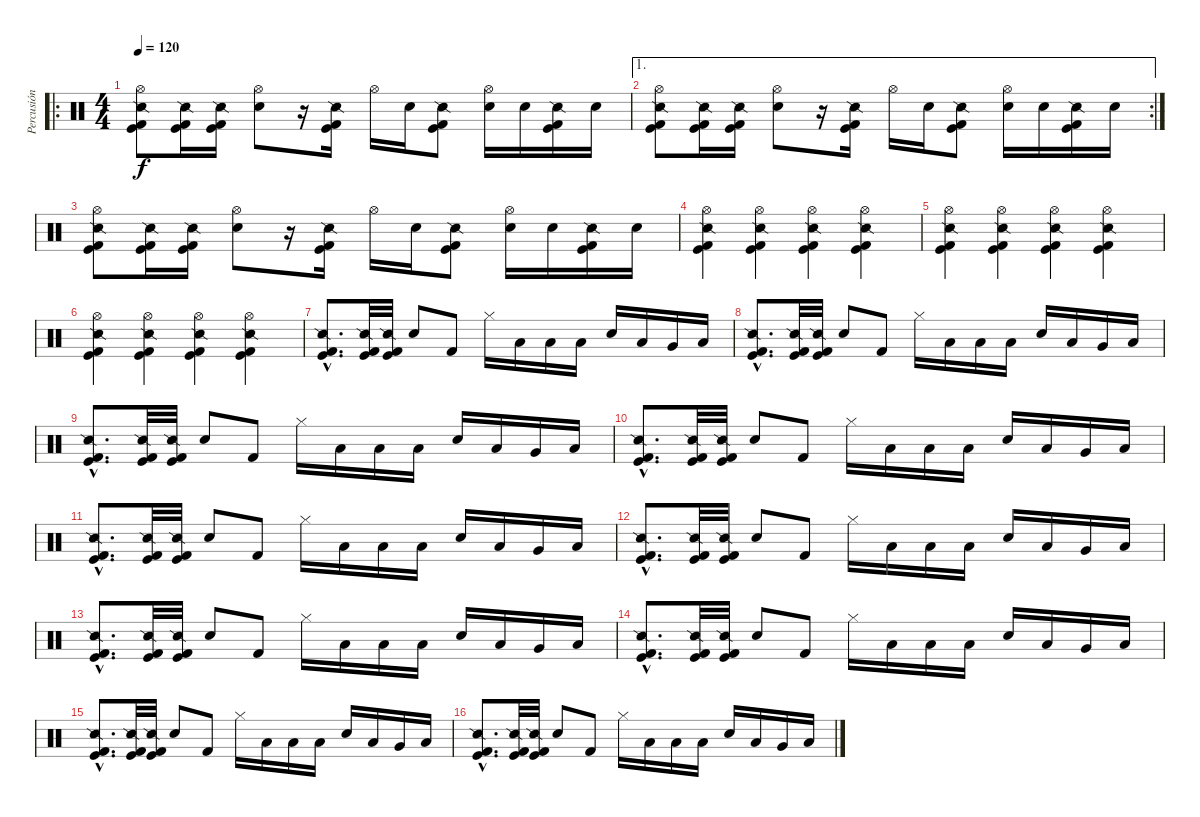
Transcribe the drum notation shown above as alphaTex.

\track ("Percusión" "Percusión") {instrument percussion}
\staff {score}
\articulation defaults
\ro
\ts (4 4)
\tempo 120
\clef neutral
\ks c
("Hi-Hat (open)" "Snare (side stick) 2" "Kick (hit)" "Kick (hit) 2").8{dy f} ("Snare (side stick) 2" "Kick (hit)" "Kick (hit) 2").16 ("Snare (side stick) 2" "Kick (hit)" "Kick (hit) 2").16 ("Hi-Hat (open)" "Snare (hit) 2").8 r.16 ("Snare (side stick) 2" "Kick (hit)" "Kick (hit) 2").16 "Hi-Hat (open)".16 "Snare (hit) 2".16 ("Snare (side stick) 2" "Kick (hit)" "Kick (hit) 2").8 ("Hi-Hat (open)" "Snare (hit) 2").16 "Snare (hit) 2".16 ("Snare (side stick) 2" "Kick (hit)" "Kick (hit) 2").16 "Snare (hit) 2".16 |
\ae 1
\rc 2
("Hi-Hat (open)" "Snare (side stick) 2" "Kick (hit)" "Kick (hit) 2").8 ("Snare (side stick) 2" "Kick (hit)" "Kick (hit) 2").16 ("Snare (side stick) 2" "Kick (hit)" "Kick (hit) 2").16 ("Hi-Hat (open)" "Snare (hit) 2").8 r.16 ("Snare (side stick) 2" "Kick (hit)" "Kick (hit) 2").16 "Hi-Hat (open)".16 "Snare (hit) 2".16 ("Snare (side stick) 2" "Kick (hit)" "Kick (hit) 2").8 ("Hi-Hat (open)" "Snare (hit) 2").16 "Snare (hit) 2".16 ("Snare (side stick) 2" "Kick (hit)" "Kick (hit) 2").16 "Snare (hit) 2".16 |
("Hi-Hat (open)" "Snare (side stick) 2" "Kick (hit)" "Kick (hit) 2").8 ("Snare (side stick) 2" "Kick (hit)" "Kick (hit) 2").16 ("Snare (side stick) 2" "Kick (hit)" "Kick (hit) 2").16 ("Hi-Hat (open)" "Snare (hit) 2").8 r.16 ("Snare (side stick) 2" "Kick (hit)" "Kick (hit) 2").16 "Hi-Hat (open)".16 "Snare (hit) 2".16 ("Snare (side stick) 2" "Kick (hit)" "Kick (hit) 2").8 ("Hi-Hat (open)" "Snare (hit) 2").16 "Snare (hit) 2".16 ("Snare (side stick) 2" "Kick (hit)" "Kick (hit) 2").16 "Snare (hit) 2".16 |
("Hi-Hat (open)" "Snare (side stick) 2" "Kick (hit)" "Kick (hit) 2").4 ("Hi-Hat (open)" "Snare (side stick) 2" "Kick (hit)" "Kick (hit) 2").4 ("Hi-Hat (open)" "Snare (side stick) 2" "Kick (hit)" "Kick (hit) 2").4 ("Hi-Hat (open)" "Snare (side stick) 2" "Kick (hit)" "Kick (hit) 2").4 |
("Hi-Hat (open)" "Snare (side stick) 2" "Kick (hit)" "Kick (hit) 2").4 ("Hi-Hat (open)" "Snare (side stick) 2" "Kick (hit)" "Kick (hit) 2").4 ("Hi-Hat (open)" "Snare (side stick) 2" "Kick (hit)" "Kick (hit) 2").4 ("Hi-Hat (open)" "Snare (side stick) 2" "Kick (hit)" "Kick (hit) 2").4 |
("Hi-Hat (open)" "Snare (side stick) 2" "Kick (hit)" "Kick (hit) 2").4 ("Hi-Hat (open)" "Snare (side stick) 2" "Kick (hit)" "Kick (hit) 2").4 ("Hi-Hat (open)" "Snare (side stick) 2" "Kick (hit)" "Kick (hit) 2").4 ("Hi-Hat (open)" "Snare (side stick) 2" "Kick (hit)" "Kick (hit) 2").4 |
("Snare (side stick) 2"{hac} "Kick (hit)"{hac} "Kick (hit) 2"{hac}).8{d} ("Snare (side stick) 2" "Kick (hit)" "Kick (hit) 2").32 ("Snare (side stick) 2" "Kick (hit)" "Kick (hit) 2").32 "Snare (hit) 2".8 "Kick (hit) 2".8 "Hi-Hat (closed)".16 "Low Tom (hit)".16 "Low Tom (hit)".16 "Low Tom (hit)".16 "Snare (hit) 2".16 "Low Tom (hit)".16 "Very Low Tom (hit)".16 "Low Floor Tom (hit)".16 |
("Snare (side stick) 2"{hac} "Kick (hit)"{hac} "Kick (hit) 2"{hac}).8{d} ("Snare (side stick) 2" "Kick (hit)" "Kick (hit) 2").32 ("Snare (side stick) 2" "Kick (hit)" "Kick (hit) 2").32 "Snare (hit) 2".8 "Kick (hit) 2".8 "Hi-Hat (closed)".16 "Low Tom (hit)".16 "Low Tom (hit)".16 "Low Tom (hit)".16 "Snare (hit) 2".16 "Low Tom (hit)".16 "Very Low Tom (hit)".16 "Low Floor Tom (hit)".16 |
("Snare (side stick) 2"{hac} "Kick (hit)"{hac} "Kick (hit) 2"{hac}).8{d} ("Snare (side stick) 2" "Kick (hit)" "Kick (hit) 2").32 ("Snare (side stick) 2" "Kick (hit)" "Kick (hit) 2").32 "Snare (hit) 2".8 "Kick (hit) 2".8 "Hi-Hat (closed)".16 "Low Tom (hit)".16 "Low Tom (hit)".16 "Low Tom (hit)".16 "Snare (hit) 2".16 "Low Tom (hit)".16 "Very Low Tom (hit)".16 "Low Floor Tom (hit)".16 |
("Snare (side stick) 2"{hac} "Kick (hit)"{hac} "Kick (hit) 2"{hac}).8{d} ("Snare (side stick) 2" "Kick (hit)" "Kick (hit) 2").32 ("Snare (side stick) 2" "Kick (hit)" "Kick (hit) 2").32 "Snare (hit) 2".8 "Kick (hit) 2".8 "Hi-Hat (closed)".16 "Low Tom (hit)".16 "Low Tom (hit)".16 "Low Tom (hit)".16 "Snare (hit) 2".16 "Low Tom (hit)".16 "Very Low Tom (hit)".16 "Low Floor Tom (hit)".16 |
("Snare (side stick) 2"{hac} "Kick (hit)"{hac} "Kick (hit) 2"{hac}).8{d} ("Snare (side stick) 2" "Kick (hit)" "Kick (hit) 2").32 ("Snare (side stick) 2" "Kick (hit)" "Kick (hit) 2").32 "Snare (hit) 2".8 "Kick (hit) 2".8 "Hi-Hat (closed)".16 "Low Tom (hit)".16 "Low Tom (hit)".16 "Low Tom (hit)".16 "Snare (hit) 2".16 "Low Tom (hit)".16 "Very Low Tom (hit)".16 "Low Floor Tom (hit)".16 |
("Snare (side stick) 2"{hac} "Kick (hit)"{hac} "Kick (hit) 2"{hac}).8{d} ("Snare (side stick) 2" "Kick (hit)" "Kick (hit) 2").32 ("Snare (side stick) 2" "Kick (hit)" "Kick (hit) 2").32 "Snare (hit) 2".8 "Kick (hit) 2".8 "Hi-Hat (closed)".16 "Low Tom (hit)".16 "Low Tom (hit)".16 "Low Tom (hit)".16 "Snare (hit) 2".16 "Low Tom (hit)".16 "Very Low Tom (hit)".16 "Low Floor Tom (hit)".16 |
("Snare (side stick) 2"{hac} "Kick (hit)"{hac} "Kick (hit) 2"{hac}).8{d} ("Snare (side stick) 2" "Kick (hit)" "Kick (hit) 2").32 ("Snare (side stick) 2" "Kick (hit)" "Kick (hit) 2").32 "Snare (hit) 2".8 "Kick (hit) 2".8 "Hi-Hat (closed)".16 "Low Tom (hit)".16 "Low Tom (hit)".16 "Low Tom (hit)".16 "Snare (hit) 2".16 "Low Tom (hit)".16 "Very Low Tom (hit)".16 "Low Floor Tom (hit)".16 |
("Snare (side stick) 2"{hac} "Kick (hit)"{hac} "Kick (hit) 2"{hac}).8{d} ("Snare (side stick) 2" "Kick (hit)" "Kick (hit) 2").32 ("Snare (side stick) 2" "Kick (hit)" "Kick (hit) 2").32 "Snare (hit) 2".8 "Kick (hit) 2".8 "Hi-Hat (closed)".16 "Low Tom (hit)".16 "Low Tom (hit)".16 "Low Tom (hit)".16 "Snare (hit) 2".16 "Low Tom (hit)".16 "Very Low Tom (hit)".16 "Low Floor Tom (hit)".16 |
("Snare (side stick) 2"{hac} "Kick (hit)"{hac} "Kick (hit) 2"{hac}).8{d} ("Snare (side stick) 2" "Kick (hit)" "Kick (hit) 2").32 ("Snare (side stick) 2" "Kick (hit)" "Kick (hit) 2").32 "Snare (hit) 2".8 "Kick (hit) 2".8 "Hi-Hat (closed)".16 "Low Tom (hit)".16 "Low Tom (hit)".16 "Low Tom (hit)".16 "Snare (hit) 2".16 "Low Tom (hit)".16 "Very Low Tom (hit)".16 "Low Floor Tom (hit)".16 |
("Snare (side stick) 2"{hac} "Kick (hit)"{hac} "Kick (hit) 2"{hac}).8{d} ("Snare (side stick) 2" "Kick (hit)" "Kick (hit) 2").32 ("Snare (side stick) 2" "Kick (hit)" "Kick (hit) 2").32 "Snare (hit) 2".8 "Kick (hit) 2".8 "Hi-Hat (closed)".16 "Low Tom (hit)".16 "Low Tom (hit)".16 "Low Tom (hit)".16 "Snare (hit) 2".16 "Low Tom (hit)".16 "Very Low Tom (hit)".16 "Low Floor Tom (hit)".16
